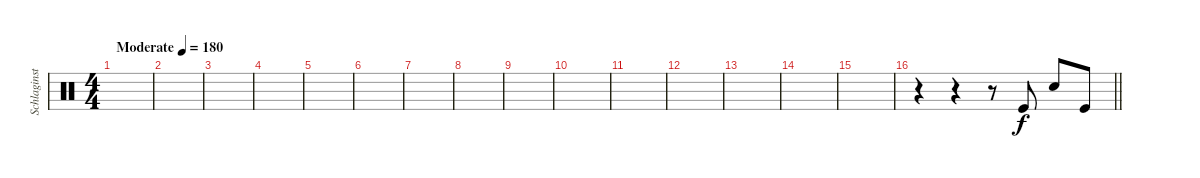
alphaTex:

\track ("Schlaginstrumente - Auswahl" "Schlaginst") {instrument percussion}
\staff {score}
\articulation defaults
\ts (4 4)
\tempo (180 "Moderate")
\clef neutral
\ks c
|
|
|
|
|
|
|
|
|
|
|
|
|
|
|
\barLineRight lightlight
r.4 r.4 r.8 "Kick (hit)".8 "Electric Snare (hit)".8 "Kick (hit)".8
